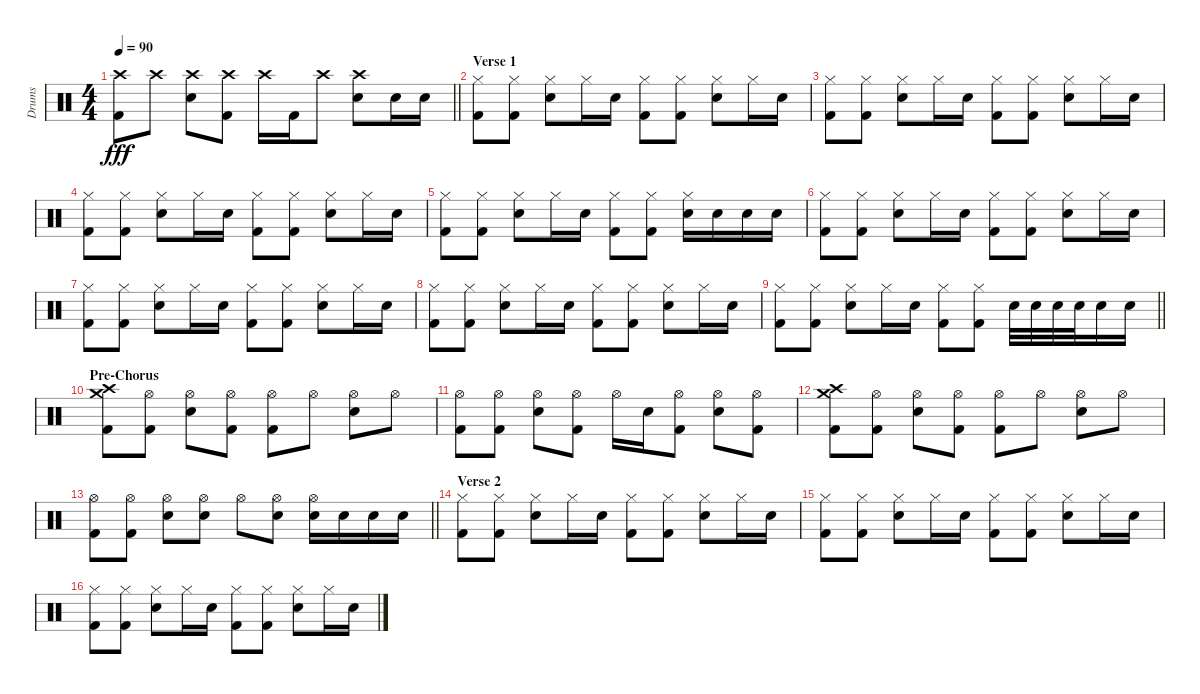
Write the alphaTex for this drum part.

\track ("Drums" "Drums") {instrument percussion}
\staff {score}
\articulation defaults
\ts (4 4)
\tempo 90
\clef neutral
\barLineRight lightlight
\ks c
("Crash high (hit)" "Kick (hit) 2").8{dy fff} "Crash high (hit)".8 ("Crash high (hit)" "Electric Snare (hit)").8 ("Crash high (hit)" "Kick (hit) 2").8 "Crash high (hit)".16 "Kick (hit) 2".16 "Crash high (hit)".8 ("Crash high (hit)" "Electric Snare (hit)").8 "Electric Snare (hit)".16 "Electric Snare (hit)".16 |
\section ("" "Verse 1")
("Hi-Hat (closed)" "Kick (hit) 2").8 ("Hi-Hat (closed)" "Kick (hit) 2").8 ("Hi-Hat (closed)" "Electric Snare (hit)").8 "Hi-Hat (closed)".16 "Electric Snare (hit)".16 ("Hi-Hat (closed)" "Kick (hit) 2").8 ("Hi-Hat (closed)" "Kick (hit) 2").8 ("Hi-Hat (closed)" "Electric Snare (hit)").8 "Hi-Hat (closed)".16 "Electric Snare (hit)".16 |
("Hi-Hat (closed)" "Kick (hit) 2").8 ("Hi-Hat (closed)" "Kick (hit) 2").8 ("Hi-Hat (closed)" "Electric Snare (hit)").8 "Hi-Hat (closed)".16 "Electric Snare (hit)".16 ("Hi-Hat (closed)" "Kick (hit) 2").8 ("Hi-Hat (closed)" "Kick (hit) 2").8 ("Hi-Hat (closed)" "Electric Snare (hit)").8 "Hi-Hat (closed)".16 "Electric Snare (hit)".16 |
("Hi-Hat (closed)" "Kick (hit) 2").8 ("Hi-Hat (closed)" "Kick (hit) 2").8 ("Hi-Hat (closed)" "Electric Snare (hit)").8 "Hi-Hat (closed)".16 "Electric Snare (hit)".16 ("Hi-Hat (closed)" "Kick (hit) 2").8 ("Hi-Hat (closed)" "Kick (hit) 2").8 ("Hi-Hat (closed)" "Electric Snare (hit)").8 "Hi-Hat (closed)".16 "Electric Snare (hit)".16 |
("Hi-Hat (closed)" "Kick (hit) 2").8 ("Hi-Hat (closed)" "Kick (hit) 2").8 ("Hi-Hat (closed)" "Electric Snare (hit)").8 "Hi-Hat (closed)".16 "Electric Snare (hit)".16 ("Hi-Hat (closed)" "Kick (hit) 2").8 ("Hi-Hat (closed)" "Kick (hit) 2").8 ("Hi-Hat (closed)" "Electric Snare (hit)").16 "Electric Snare (hit)".16 "Electric Snare (hit)".16 "Electric Snare (hit)".16 |
("Hi-Hat (closed)" "Kick (hit) 2").8 ("Hi-Hat (closed)" "Kick (hit) 2").8 ("Hi-Hat (closed)" "Electric Snare (hit)").8 "Hi-Hat (closed)".16 "Electric Snare (hit)".16 ("Hi-Hat (closed)" "Kick (hit) 2").8 ("Hi-Hat (closed)" "Kick (hit) 2").8 ("Hi-Hat (closed)" "Electric Snare (hit)").8 "Hi-Hat (closed)".16 "Electric Snare (hit)".16 |
("Hi-Hat (closed)" "Kick (hit) 2").8 ("Hi-Hat (closed)" "Kick (hit) 2").8 ("Hi-Hat (closed)" "Electric Snare (hit)").8 "Hi-Hat (closed)".16 "Electric Snare (hit)".16 ("Hi-Hat (closed)" "Kick (hit) 2").8 ("Hi-Hat (closed)" "Kick (hit) 2").8 ("Hi-Hat (closed)" "Electric Snare (hit)").8 "Hi-Hat (closed)".16 "Electric Snare (hit)".16 |
("Hi-Hat (closed)" "Kick (hit) 2").8 ("Hi-Hat (closed)" "Kick (hit) 2").8 ("Hi-Hat (closed)" "Electric Snare (hit)").8 "Hi-Hat (closed)".16 "Electric Snare (hit)".16 ("Hi-Hat (closed)" "Kick (hit) 2").8 ("Hi-Hat (closed)" "Kick (hit) 2").8 ("Hi-Hat (closed)" "Electric Snare (hit)").8 "Hi-Hat (closed)".16 "Electric Snare (hit)".16 |
\barLineRight lightlight
("Hi-Hat (closed)" "Kick (hit) 2").8 ("Hi-Hat (closed)" "Kick (hit) 2").8 ("Hi-Hat (closed)" "Electric Snare (hit)").8 "Hi-Hat (closed)".16 "Electric Snare (hit)".16 ("Hi-Hat (closed)" "Kick (hit) 2").8 ("Hi-Hat (closed)" "Kick (hit) 2").8 "Electric Snare (hit)".32 "Electric Snare (hit)".32 "Electric Snare (hit)".32 "Electric Snare (hit)".32 "Electric Snare (hit)".16 "Electric Snare (hit)".16 |
\section ("" "Pre-Chorus")
("Crash high (hit)" "Crash medium (hit)" "Kick (hit) 2").8 ("Hi-Hat (open)" "Kick (hit) 2").8 ("Hi-Hat (open)" "Electric Snare (hit)").8 ("Hi-Hat (open)" "Kick (hit) 2").8 ("Hi-Hat (open)" "Kick (hit) 2").8 "Hi-Hat (open)".8 ("Hi-Hat (open)" "Electric Snare (hit)").8 "Hi-Hat (open)".8 |
("Hi-Hat (open)" "Kick (hit) 2").8 ("Hi-Hat (open)" "Kick (hit) 2").8 ("Hi-Hat (open)" "Electric Snare (hit)").8 ("Hi-Hat (open)" "Kick (hit) 2").8 "Hi-Hat (open)".16 "Electric Snare (hit)".16 ("Hi-Hat (open)" "Kick (hit) 2").8 ("Hi-Hat (open)" "Electric Snare (hit)").8 ("Hi-Hat (open)" "Kick (hit) 2").8 |
("Crash high (hit)" "Crash medium (hit)" "Kick (hit) 2").8 ("Hi-Hat (open)" "Kick (hit) 2").8 ("Hi-Hat (open)" "Electric Snare (hit)").8 ("Hi-Hat (open)" "Kick (hit) 2").8 ("Hi-Hat (open)" "Kick (hit) 2").8 "Hi-Hat (open)".8 ("Hi-Hat (open)" "Electric Snare (hit)").8 "Hi-Hat (open)".8 |
\barLineRight lightlight
("Hi-Hat (open)" "Kick (hit) 2").8 ("Hi-Hat (open)" "Kick (hit) 2").8 ("Hi-Hat (open)" "Electric Snare (hit)").8 ("Hi-Hat (open)" "Electric Snare (hit)").8 "Hi-Hat (open)".8 ("Hi-Hat (open)" "Electric Snare (hit)").8 ("Hi-Hat (open)" "Electric Snare (hit)").16 "Electric Snare (hit)".16 "Electric Snare (hit)".16 "Electric Snare (hit)".16 |
\section ("" "Verse 2")
("Hi-Hat (closed)" "Kick (hit) 2").8 ("Hi-Hat (closed)" "Kick (hit) 2").8 ("Hi-Hat (closed)" "Electric Snare (hit)").8 "Hi-Hat (closed)".16 "Electric Snare (hit)".16 ("Hi-Hat (closed)" "Kick (hit) 2").8 ("Hi-Hat (closed)" "Kick (hit) 2").8 ("Hi-Hat (closed)" "Electric Snare (hit)").8 "Hi-Hat (closed)".16 "Electric Snare (hit)".16 |
("Hi-Hat (closed)" "Kick (hit) 2").8 ("Hi-Hat (closed)" "Kick (hit) 2").8 ("Hi-Hat (closed)" "Electric Snare (hit)").8 "Hi-Hat (closed)".16 "Electric Snare (hit)".16 ("Hi-Hat (closed)" "Kick (hit) 2").8 ("Hi-Hat (closed)" "Kick (hit) 2").8 ("Hi-Hat (closed)" "Electric Snare (hit)").8 "Hi-Hat (closed)".16 "Electric Snare (hit)".16 |
("Hi-Hat (closed)" "Kick (hit) 2").8 ("Hi-Hat (closed)" "Kick (hit) 2").8 ("Hi-Hat (closed)" "Electric Snare (hit)").8 "Hi-Hat (closed)".16 "Electric Snare (hit)".16 ("Hi-Hat (closed)" "Kick (hit) 2").8 ("Hi-Hat (closed)" "Kick (hit) 2").8 ("Hi-Hat (closed)" "Electric Snare (hit)").8 "Hi-Hat (closed)".16 "Electric Snare (hit)".16
